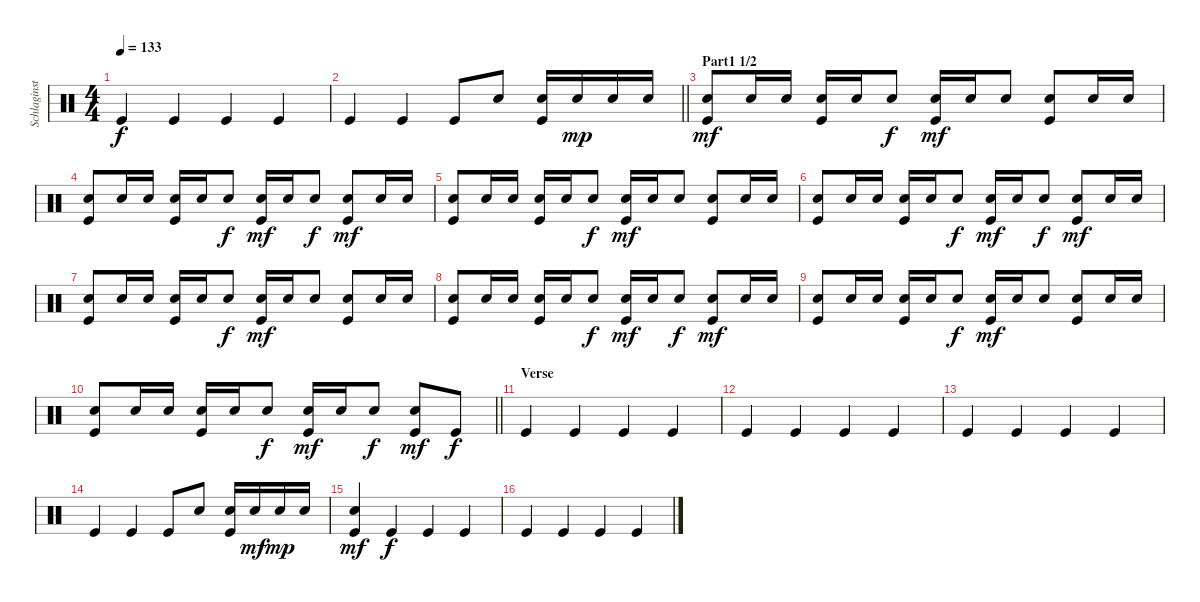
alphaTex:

\track ("Schlaginstrumente - Auswahl" "Schlaginst") {instrument percussion}
\staff {score}
\articulation defaults
\ts (4 4)
\tempo 133
\clef neutral
\ks c "Kick (hit)".4{dy f} "Kick (hit)".4 "Kick (hit)".4 "Kick (hit)".4
|
\barLineRight lightlight "Kick (hit)".4 "Kick (hit)".4 "Kick (hit)".8 "Snare (hit) 2".8
("Snare (hit) 2" "Kick (hit)").16 "Snare (hit) 2".16{dy mp} "Snare (hit) 2".16 "Snare (hit) 2".16 |
\section ("" "Part1 1/2")
("Snare (hit) 2" "Kick (hit)").8{dy mf} "Snare (hit) 2".16 "Snare (hit) 2".16 ("Snare (hit) 2" "Kick (hit)").16 "Snare (hit) 2".16 "Snare (hit) 2".8{dy f} ("Snare (hit) 2" "Kick (hit)").16{dy mf} "Snare (hit) 2".16 "Snare (hit) 2".8 ("Snare (hit) 2" "Kick (hit)").8 "Snare (hit) 2".16 "Snare (hit) 2".16 |
("Snare (hit) 2" "Kick (hit)").8 "Snare (hit) 2".16 "Snare (hit) 2".16 ("Snare (hit) 2" "Kick (hit)").16 "Snare (hit) 2".16 "Snare (hit) 2".8{dy f} ("Snare (hit) 2" "Kick (hit)").16{dy mf} "Snare (hit) 2".16 "Snare (hit) 2".8{dy f} ("Snare (hit) 2" "Kick (hit)").8{dy mf} "Snare (hit) 2".16 "Snare (hit) 2".16 |
("Snare (hit) 2" "Kick (hit)").8 "Snare (hit) 2".16 "Snare (hit) 2".16 ("Snare (hit) 2" "Kick (hit)").16 "Snare (hit) 2".16 "Snare (hit) 2".8{dy f} ("Snare (hit) 2" "Kick (hit)").16{dy mf} "Snare (hit) 2".16 "Snare (hit) 2".8 ("Snare (hit) 2" "Kick (hit)").8 "Snare (hit) 2".16 "Snare (hit) 2".16 |
("Snare (hit) 2" "Kick (hit)").8 "Snare (hit) 2".16 "Snare (hit) 2".16 ("Snare (hit) 2" "Kick (hit)").16 "Snare (hit) 2".16 "Snare (hit) 2".8{dy f} ("Snare (hit) 2" "Kick (hit)").16{dy mf} "Snare (hit) 2".16 "Snare (hit) 2".8{dy f} ("Snare (hit) 2" "Kick (hit)").8{dy mf} "Snare (hit) 2".16 "Snare (hit) 2".16 |
("Snare (hit) 2" "Kick (hit)").8 "Snare (hit) 2".16 "Snare (hit) 2".16 ("Snare (hit) 2" "Kick (hit)").16 "Snare (hit) 2".16 "Snare (hit) 2".8{dy f} ("Snare (hit) 2" "Kick (hit)").16{dy mf} "Snare (hit) 2".16 "Snare (hit) 2".8 ("Snare (hit) 2" "Kick (hit)").8 "Snare (hit) 2".16 "Snare (hit) 2".16 |
("Snare (hit) 2" "Kick (hit)").8 "Snare (hit) 2".16 "Snare (hit) 2".16 ("Snare (hit) 2" "Kick (hit)").16 "Snare (hit) 2".16 "Snare (hit) 2".8{dy f} ("Snare (hit) 2" "Kick (hit)").16{dy mf} "Snare (hit) 2".16 "Snare (hit) 2".8{dy f} ("Snare (hit) 2" "Kick (hit)").8{dy mf} "Snare (hit) 2".16 "Snare (hit) 2".16 |
("Snare (hit) 2" "Kick (hit)").8 "Snare (hit) 2".16 "Snare (hit) 2".16 ("Snare (hit) 2" "Kick (hit)").16 "Snare (hit) 2".16 "Snare (hit) 2".8{dy f} ("Snare (hit) 2" "Kick (hit)").16{dy mf} "Snare (hit) 2".16 "Snare (hit) 2".8 ("Snare (hit) 2" "Kick (hit)").8 "Snare (hit) 2".16 "Snare (hit) 2".16 |
\barLineRight lightlight
("Snare (hit) 2" "Kick (hit)").8 "Snare (hit) 2".16 "Snare (hit) 2".16 ("Snare (hit) 2" "Kick (hit)").16 "Snare (hit) 2".16 "Snare (hit) 2".8{dy f} ("Snare (hit) 2" "Kick (hit)").16{dy mf} "Snare (hit) 2".16 "Snare (hit) 2".8{dy f} ("Snare (hit) 2" "Kick (hit)").8{dy mf} "Kick (hit)".8{dy f} |
\section ("" "Verse")
"Kick (hit)".4 "Kick (hit)".4 "Kick (hit)".4 "Kick (hit)".4 |
"Kick (hit)".4 "Kick (hit)".4 "Kick (hit)".4 "Kick (hit)".4 |
"Kick (hit)".4 "Kick (hit)".4 "Kick (hit)".4 "Kick (hit)".4 |
"Kick (hit)".4 "Kick (hit)".4 "Kick (hit)".8 "Snare (hit) 2".8 ("Snare (hit) 2" "Kick (hit)").16 "Snare (hit) 2".16{dy mf} "Snare (hit) 2".16{dy mp} "Snare (hit) 2".16 |
("Snare (hit) 2" "Kick (hit)").4{dy mf} "Kick (hit)".4{dy f} "Kick (hit)".4 "Kick (hit)".4 |
"Kick (hit)".4 "Kick (hit)".4 "Kick (hit)".4 "Kick (hit)".4
